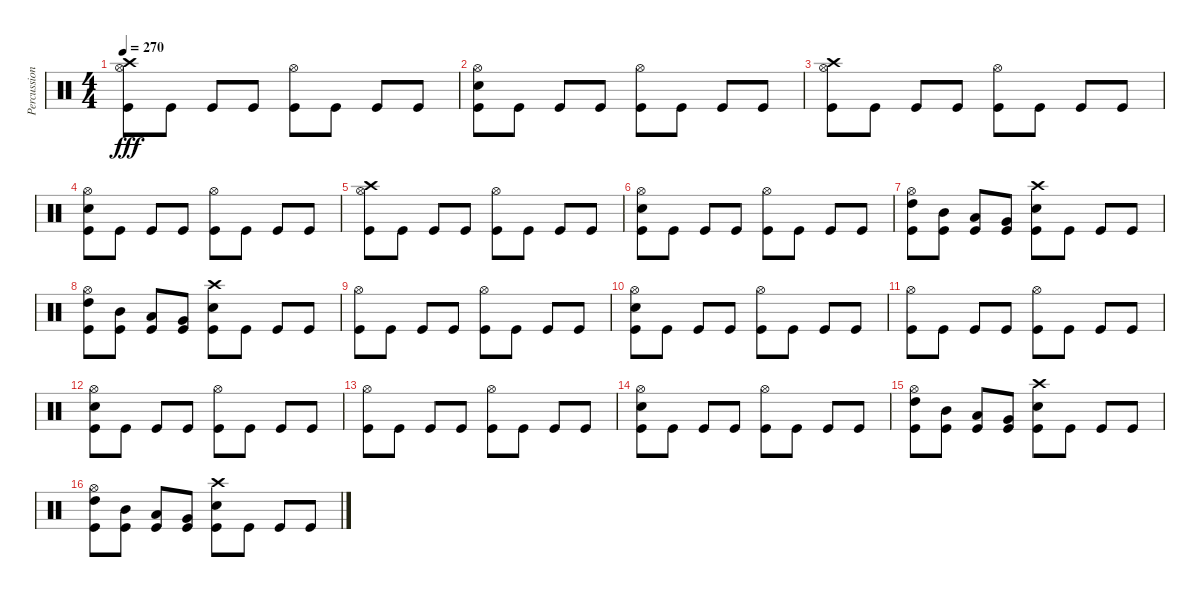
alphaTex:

\track ("Percussion" "Percussion") {instrument percussion}
\staff {score}
\articulation defaults
\ts (4 4)
\tempo 270
\clef neutral
\ks c
("Hi-Hat (open)" "Crash high (hit)" "Kick (hit)").8{dy fff} "Kick (hit)".8 "Kick (hit)".8 "Kick (hit)".8 ("Hi-Hat (open)" "Kick (hit)").8 "Kick (hit)".8 "Kick (hit)".8 "Kick (hit)".8 |
("Hi-Hat (open)" "Electric Snare (hit)" "Kick (hit)").8 "Kick (hit)".8 "Kick (hit)".8 "Kick (hit)".8 ("Hi-Hat (open)" "Kick (hit)").8 "Kick (hit)".8 "Kick (hit)".8 "Kick (hit)".8 |
("Hi-Hat (open)" "Crash high (hit)" "Kick (hit)").8 "Kick (hit)".8 "Kick (hit)".8 "Kick (hit)".8 ("Hi-Hat (open)" "Kick (hit)").8 "Kick (hit)".8 "Kick (hit)".8 "Kick (hit)".8 |
("Hi-Hat (open)" "Electric Snare (hit)" "Kick (hit)").8 "Kick (hit)".8 "Kick (hit)".8 "Kick (hit)".8 ("Hi-Hat (open)" "Kick (hit)").8 "Kick (hit)".8 "Kick (hit)".8 "Kick (hit)".8 |
("Hi-Hat (open)" "Crash high (hit)" "Kick (hit)").8 "Kick (hit)".8 "Kick (hit)".8 "Kick (hit)".8 ("Hi-Hat (open)" "Kick (hit)").8 "Kick (hit)".8 "Kick (hit)".8 "Kick (hit)".8 |
("Hi-Hat (open)" "Electric Snare (hit)" "Kick (hit)").8 "Kick (hit)".8 "Kick (hit)".8 "Kick (hit)".8 ("Hi-Hat (open)" "Kick (hit)").8 "Kick (hit)".8 "Kick (hit)".8 "Kick (hit)".8 |
("Hi-Hat (open)" "High Tom (hit)" "Kick (hit)").8 ("Mid Tom (hit)" "Kick (hit)").8 ("Low Tom (hit)" "Kick (hit)").8 ("Very Low Tom (hit)" "Kick (hit)").8 ("Crash high (hit)" "Electric Snare (hit)" "Kick (hit)").8 "Kick (hit)".8 "Kick (hit)".8 "Kick (hit)".8 |
("Hi-Hat (open)" "High Tom (hit)" "Kick (hit)").8 ("Mid Tom (hit)" "Kick (hit)").8 ("Low Tom (hit)" "Kick (hit)").8 ("Very Low Tom (hit)" "Kick (hit)").8 ("Crash high (hit)" "Electric Snare (hit)" "Kick (hit)").8 "Kick (hit)".8 "Kick (hit)".8 "Kick (hit)".8 |
("Hi-Hat (open)" "Kick (hit)").8 "Kick (hit)".8 "Kick (hit)".8 "Kick (hit)".8 ("Hi-Hat (open)" "Kick (hit)").8 "Kick (hit)".8 "Kick (hit)".8 "Kick (hit)".8 |
("Hi-Hat (open)" "Electric Snare (hit)" "Kick (hit)").8 "Kick (hit)".8 "Kick (hit)".8 "Kick (hit)".8 ("Hi-Hat (open)" "Kick (hit)").8 "Kick (hit)".8 "Kick (hit)".8 "Kick (hit)".8 |
("Hi-Hat (open)" "Kick (hit)").8 "Kick (hit)".8 "Kick (hit)".8 "Kick (hit)".8 ("Hi-Hat (open)" "Kick (hit)").8 "Kick (hit)".8 "Kick (hit)".8 "Kick (hit)".8 |
("Hi-Hat (open)" "Electric Snare (hit)" "Kick (hit)").8 "Kick (hit)".8 "Kick (hit)".8 "Kick (hit)".8 ("Hi-Hat (open)" "Kick (hit)").8 "Kick (hit)".8 "Kick (hit)".8 "Kick (hit)".8 |
("Hi-Hat (open)" "Kick (hit)").8 "Kick (hit)".8 "Kick (hit)".8 "Kick (hit)".8 ("Hi-Hat (open)" "Kick (hit)").8 "Kick (hit)".8 "Kick (hit)".8 "Kick (hit)".8 |
("Hi-Hat (open)" "Electric Snare (hit)" "Kick (hit)").8 "Kick (hit)".8 "Kick (hit)".8 "Kick (hit)".8 ("Hi-Hat (open)" "Kick (hit)").8 "Kick (hit)".8 "Kick (hit)".8 "Kick (hit)".8 |
("Hi-Hat (open)" "High Tom (hit)" "Kick (hit)").8 ("Mid Tom (hit)" "Kick (hit)").8 ("Low Tom (hit)" "Kick (hit)").8 ("Very Low Tom (hit)" "Kick (hit)").8 ("Crash high (hit)" "Electric Snare (hit)" "Kick (hit)").8 "Kick (hit)".8 "Kick (hit)".8 "Kick (hit)".8 |
("Hi-Hat (open)" "High Tom (hit)" "Kick (hit)").8 ("Mid Tom (hit)" "Kick (hit)").8 ("Low Tom (hit)" "Kick (hit)").8 ("Very Low Tom (hit)" "Kick (hit)").8 ("Crash high (hit)" "Electric Snare (hit)" "Kick (hit)").8 "Kick (hit)".8 "Kick (hit)".8 "Kick (hit)".8
